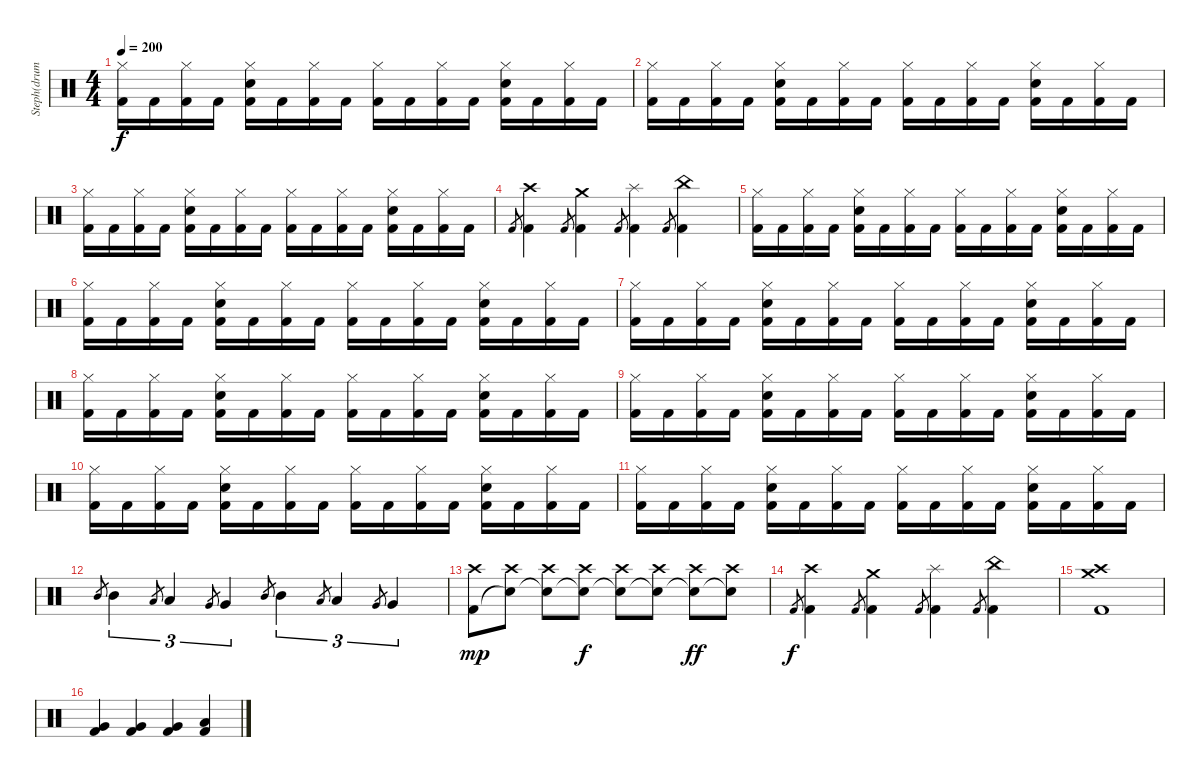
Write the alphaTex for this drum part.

\track ("Steph(drums)" "Steph(drum") {instrument percussion}
\staff {score}
\articulation defaults
\ts (4 4)
\tempo 200
\clef neutral
\ks c
("Hi-Hat (closed)" "Kick (hit) 2").16{dy f} "Kick (hit) 2".16 ("Hi-Hat (closed)" "Kick (hit) 2").16 "Kick (hit) 2".16 ("Hi-Hat (closed)" "Electric Snare (hit)" "Kick (hit) 2").16 "Kick (hit) 2".16 ("Hi-Hat (closed)" "Kick (hit) 2").16 "Kick (hit) 2".16 ("Hi-Hat (closed)" "Kick (hit) 2").16 "Kick (hit) 2".16 ("Hi-Hat (closed)" "Kick (hit) 2").16 "Kick (hit) 2".16 ("Hi-Hat (closed)" "Electric Snare (hit)" "Kick (hit) 2").16 "Kick (hit) 2".16 ("Hi-Hat (closed)" "Kick (hit) 2").16 "Kick (hit) 2".16 |
("Hi-Hat (closed)" "Kick (hit) 2").16 "Kick (hit) 2".16 ("Hi-Hat (closed)" "Kick (hit) 2").16 "Kick (hit) 2".16 ("Hi-Hat (closed)" "Electric Snare (hit)" "Kick (hit) 2").16 "Kick (hit) 2".16 ("Hi-Hat (closed)" "Kick (hit) 2").16 "Kick (hit) 2".16 ("Hi-Hat (closed)" "Kick (hit) 2").16 "Kick (hit) 2".16 ("Hi-Hat (closed)" "Kick (hit) 2").16 "Kick (hit) 2".16 ("Hi-Hat (closed)" "Electric Snare (hit)" "Kick (hit) 2").16 "Kick (hit) 2".16 ("Hi-Hat (closed)" "Kick (hit) 2").16 "Kick (hit) 2".16 |
("Hi-Hat (closed)" "Kick (hit) 2").16 "Kick (hit) 2".16 ("Hi-Hat (closed)" "Kick (hit) 2").16 "Kick (hit) 2".16 ("Hi-Hat (closed)" "Electric Snare (hit)" "Kick (hit) 2").16 "Kick (hit) 2".16 ("Hi-Hat (closed)" "Kick (hit) 2").16 "Kick (hit) 2".16 ("Hi-Hat (closed)" "Kick (hit) 2").16 "Kick (hit) 2".16 ("Hi-Hat (closed)" "Kick (hit) 2").16 "Kick (hit) 2".16 ("Hi-Hat (closed)" "Electric Snare (hit)" "Kick (hit) 2").16 "Kick (hit) 2".16 ("Hi-Hat (closed)" "Kick (hit) 2").16 "Kick (hit) 2".16 |
"Kick (hit) 2".8{gr} ("Crash high (hit)" "Kick (hit) 2").4 "Kick (hit) 2".8{gr} ("Crash medium (hit)" "Kick (hit) 2").4 "Kick (hit) 2".8{gr} ("Splash (hit)" "Kick (hit) 2").4 "Kick (hit) 2".8{gr} ("China (hit)" "Kick (hit) 2").4 |
("Hi-Hat (closed)" "Kick (hit) 2").16 "Kick (hit) 2".16 ("Hi-Hat (closed)" "Kick (hit) 2").16 "Kick (hit) 2".16 ("Hi-Hat (closed)" "Electric Snare (hit)" "Kick (hit) 2").16 "Kick (hit) 2".16 ("Hi-Hat (closed)" "Kick (hit) 2").16 "Kick (hit) 2".16 ("Hi-Hat (closed)" "Kick (hit) 2").16 "Kick (hit) 2".16 ("Hi-Hat (closed)" "Kick (hit) 2").16 "Kick (hit) 2".16 ("Hi-Hat (closed)" "Electric Snare (hit)" "Kick (hit) 2").16 "Kick (hit) 2".16 ("Hi-Hat (closed)" "Kick (hit) 2").16 "Kick (hit) 2".16 |
("Hi-Hat (closed)" "Kick (hit) 2").16 "Kick (hit) 2".16 ("Hi-Hat (closed)" "Kick (hit) 2").16 "Kick (hit) 2".16 ("Hi-Hat (closed)" "Electric Snare (hit)" "Kick (hit) 2").16 "Kick (hit) 2".16 ("Hi-Hat (closed)" "Kick (hit) 2").16 "Kick (hit) 2".16 ("Hi-Hat (closed)" "Kick (hit) 2").16 "Kick (hit) 2".16 ("Hi-Hat (closed)" "Kick (hit) 2").16 "Kick (hit) 2".16 ("Hi-Hat (closed)" "Electric Snare (hit)" "Kick (hit) 2").16 "Kick (hit) 2".16 ("Hi-Hat (closed)" "Kick (hit) 2").16 "Kick (hit) 2".16 |
("Hi-Hat (closed)" "Kick (hit) 2").16 "Kick (hit) 2".16 ("Hi-Hat (closed)" "Kick (hit) 2").16 "Kick (hit) 2".16 ("Hi-Hat (closed)" "Electric Snare (hit)" "Kick (hit) 2").16 "Kick (hit) 2".16 ("Hi-Hat (closed)" "Kick (hit) 2").16 "Kick (hit) 2".16 ("Hi-Hat (closed)" "Kick (hit) 2").16 "Kick (hit) 2".16 ("Hi-Hat (closed)" "Kick (hit) 2").16 "Kick (hit) 2".16 ("Hi-Hat (closed)" "Electric Snare (hit)" "Kick (hit) 2").16 "Kick (hit) 2".16 ("Hi-Hat (closed)" "Kick (hit) 2").16 "Kick (hit) 2".16 |
("Hi-Hat (closed)" "Kick (hit) 2").16 "Kick (hit) 2".16 ("Hi-Hat (closed)" "Kick (hit) 2").16 "Kick (hit) 2".16 ("Hi-Hat (closed)" "Electric Snare (hit)" "Kick (hit) 2").16 "Kick (hit) 2".16 ("Hi-Hat (closed)" "Kick (hit) 2").16 "Kick (hit) 2".16 ("Hi-Hat (closed)" "Kick (hit) 2").16 "Kick (hit) 2".16 ("Hi-Hat (closed)" "Kick (hit) 2").16 "Kick (hit) 2".16 ("Hi-Hat (closed)" "Electric Snare (hit)" "Kick (hit) 2").16 "Kick (hit) 2".16 ("Hi-Hat (closed)" "Kick (hit) 2").16 "Kick (hit) 2".16 |
("Hi-Hat (closed)" "Kick (hit) 2").16 "Kick (hit) 2".16 ("Hi-Hat (closed)" "Kick (hit) 2").16 "Kick (hit) 2".16 ("Hi-Hat (closed)" "Electric Snare (hit)" "Kick (hit) 2").16 "Kick (hit) 2".16 ("Hi-Hat (closed)" "Kick (hit) 2").16 "Kick (hit) 2".16 ("Hi-Hat (closed)" "Kick (hit) 2").16 "Kick (hit) 2".16 ("Hi-Hat (closed)" "Kick (hit) 2").16 "Kick (hit) 2".16 ("Hi-Hat (closed)" "Electric Snare (hit)" "Kick (hit) 2").16 "Kick (hit) 2".16 ("Hi-Hat (closed)" "Kick (hit) 2").16 "Kick (hit) 2".16 |
("Hi-Hat (closed)" "Kick (hit) 2").16 "Kick (hit) 2".16 ("Hi-Hat (closed)" "Kick (hit) 2").16 "Kick (hit) 2".16 ("Hi-Hat (closed)" "Electric Snare (hit)" "Kick (hit) 2").16 "Kick (hit) 2".16 ("Hi-Hat (closed)" "Kick (hit) 2").16 "Kick (hit) 2".16 ("Hi-Hat (closed)" "Kick (hit) 2").16 "Kick (hit) 2".16 ("Hi-Hat (closed)" "Kick (hit) 2").16 "Kick (hit) 2".16 ("Hi-Hat (closed)" "Electric Snare (hit)" "Kick (hit) 2").16 "Kick (hit) 2".16 ("Hi-Hat (closed)" "Kick (hit) 2").16 "Kick (hit) 2".16 |
("Hi-Hat (closed)" "Kick (hit) 2").16 "Kick (hit) 2".16 ("Hi-Hat (closed)" "Kick (hit) 2").16 "Kick (hit) 2".16 ("Hi-Hat (closed)" "Electric Snare (hit)" "Kick (hit) 2").16 "Kick (hit) 2".16 ("Hi-Hat (closed)" "Kick (hit) 2").16 "Kick (hit) 2".16 ("Hi-Hat (closed)" "Kick (hit) 2").16 "Kick (hit) 2".16 ("Hi-Hat (closed)" "Kick (hit) 2").16 "Kick (hit) 2".16 ("Hi-Hat (closed)" "Electric Snare (hit)" "Kick (hit) 2").16 "Kick (hit) 2".16 ("Hi-Hat (closed)" "Kick (hit) 2").16 "Kick (hit) 2".16 |
"Mid Tom (hit)".8{gr} "Mid Tom (hit)".4{tu (3 2)} "Low Tom (hit)".8{gr} "Low Tom (hit)".4{tu (3 2)} "Very Low Tom (hit)".8{gr} "Very Low Tom (hit)".4{tu (3 2)} "Mid Tom (hit)".8{gr} "Mid Tom (hit)".4{tu (3 2)} "Low Tom (hit)".8{gr} "Low Tom (hit)".4{tu (3 2)} "Very Low Tom (hit)".8{gr} "Very Low Tom (hit)".4{tu (3 2)} |
("Crash high (hit)" "Kick (hit) 2").8{dy mp} ("Crash high (hit)" "Snare (hit)"{t}).8 ("Crash high (hit)" "Snare (hit)"{t}).8 ("Crash high (hit)" "Snare (hit)"{t}).8{dy f} ("Crash high (hit)" "Snare (hit)"{t}).8 ("Crash high (hit)" "Snare (hit)"{t}).8 ("Crash high (hit)" "Snare (hit)"{t}).8{dy ff} ("Crash high (hit)" "Snare (hit)"{t}).8 |
"Kick (hit) 2".8{gr dy f} ("Crash high (hit)" "Kick (hit) 2").4 "Kick (hit) 2".8{gr} ("Crash medium (hit)" "Kick (hit) 2").4 "Kick (hit) 2".8{gr} ("Splash (hit)" "Kick (hit) 2").4 "Kick (hit) 2".8{gr} ("China (hit)" "Kick (hit) 2").4 |
("Crash high (hit)" "Crash medium (hit)" "Kick (hit) 2").1 |
("Very Low Tom (hit)" "Kick (hit) 2").4 ("Very Low Tom (hit)" "Kick (hit) 2").4 ("Very Low Tom (hit)" "Kick (hit) 2").4 ("Low Tom (hit)" "Kick (hit) 2").4
